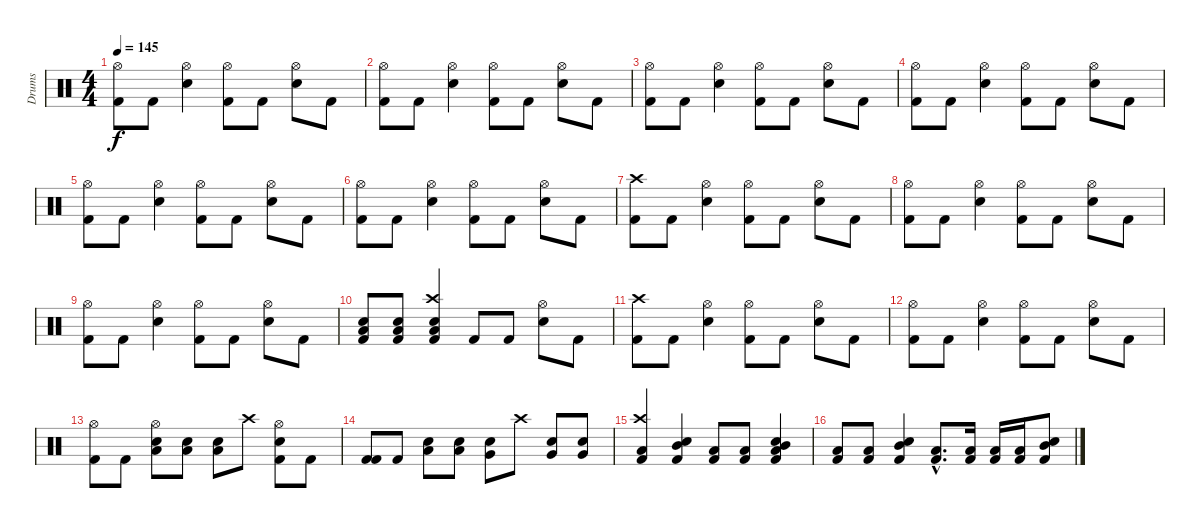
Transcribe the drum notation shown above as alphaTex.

\track ("Drums" "Drums") {instrument percussion}
\staff {score}
\articulation defaults
\ts (4 4)
\tempo 145
\clef neutral
\ks c
("Hi-Hat (open)" "Kick (hit) 2").8{dy f} "Kick (hit) 2".8 ("Hi-Hat (open)" "Electric Snare (hit)").4 ("Hi-Hat (open)" "Kick (hit) 2").8 "Kick (hit) 2".8 ("Hi-Hat (open)" "Electric Snare (hit)").8 "Kick (hit) 2".8 |
("Hi-Hat (open)" "Kick (hit) 2").8 "Kick (hit) 2".8 ("Hi-Hat (open)" "Electric Snare (hit)").4 ("Hi-Hat (open)" "Kick (hit) 2").8 "Kick (hit) 2".8 ("Hi-Hat (open)" "Electric Snare (hit)").8 "Kick (hit) 2".8 |
("Hi-Hat (open)" "Kick (hit) 2").8 "Kick (hit) 2".8 ("Hi-Hat (open)" "Electric Snare (hit)").4 ("Hi-Hat (open)" "Kick (hit) 2").8 "Kick (hit) 2".8 ("Hi-Hat (open)" "Electric Snare (hit)").8 "Kick (hit) 2".8 |
("Hi-Hat (open)" "Kick (hit) 2").8 "Kick (hit) 2".8 ("Hi-Hat (open)" "Electric Snare (hit)").4 ("Hi-Hat (open)" "Kick (hit) 2").8 "Kick (hit) 2".8 ("Hi-Hat (open)" "Electric Snare (hit)").8 "Kick (hit) 2".8 |
("Hi-Hat (open)" "Kick (hit) 2").8 "Kick (hit) 2".8 ("Hi-Hat (open)" "Electric Snare (hit)").4 ("Hi-Hat (open)" "Kick (hit) 2").8 "Kick (hit) 2".8 ("Hi-Hat (open)" "Electric Snare (hit)").8 "Kick (hit) 2".8 |
("Hi-Hat (open)" "Kick (hit) 2").8 "Kick (hit) 2".8 ("Hi-Hat (open)" "Electric Snare (hit)").4 ("Hi-Hat (open)" "Kick (hit) 2").8 "Kick (hit) 2".8 ("Hi-Hat (open)" "Electric Snare (hit)").8 "Kick (hit) 2".8 |
("Crash high (hit)" "Kick (hit) 2").8 "Kick (hit) 2".8 ("Hi-Hat (open)" "Electric Snare (hit)").4 ("Hi-Hat (open)" "Kick (hit) 2").8 "Kick (hit) 2".8 ("Hi-Hat (open)" "Electric Snare (hit)").8 "Kick (hit) 2".8 |
("Hi-Hat (open)" "Kick (hit) 2").8 "Kick (hit) 2".8 ("Hi-Hat (open)" "Electric Snare (hit)").4 ("Hi-Hat (open)" "Kick (hit) 2").8 "Kick (hit) 2".8 ("Hi-Hat (open)" "Electric Snare (hit)").8 "Kick (hit) 2".8 |
("Hi-Hat (open)" "Kick (hit) 2").8 "Kick (hit) 2".8 ("Hi-Hat (open)" "Electric Snare (hit)").4 ("Hi-Hat (open)" "Kick (hit) 2").8 "Kick (hit) 2".8 ("Hi-Hat (open)" "Electric Snare (hit)").8 "Kick (hit) 2".8 |
("Low Tom (hit)" "Electric Snare (hit)" "Kick (hit) 2").8 ("Low Tom (hit)" "Electric Snare (hit)" "Kick (hit) 2").8 ("Crash high (hit)" "Low Tom (hit)" "Electric Snare (hit)" "Kick (hit) 2").4 "Kick (hit) 2".8 "Kick (hit) 2".8 ("Hi-Hat (open)" "Electric Snare (hit)").8 "Kick (hit) 2".8 |
("Crash high (hit)" "Kick (hit) 2").8 "Kick (hit) 2".8 ("Hi-Hat (open)" "Electric Snare (hit)").4 ("Hi-Hat (open)" "Kick (hit) 2").8 "Kick (hit) 2".8 ("Hi-Hat (open)" "Electric Snare (hit)").8 "Kick (hit) 2".8 |
("Hi-Hat (open)" "Kick (hit) 2").8 "Kick (hit) 2".8 ("Hi-Hat (open)" "Electric Snare (hit)").4 ("Hi-Hat (open)" "Kick (hit) 2").8 "Kick (hit) 2".8 ("Hi-Hat (open)" "Electric Snare (hit)").8 "Kick (hit) 2".8 |
("Hi-Hat (open)" "Kick (hit) 2").8 "Kick (hit) 2".8 ("Hi-Hat (open)" "Electric Snare (hit)" "Low Tom (hit)").8 ("Electric Snare (hit)" "Low Tom (hit)").8 ("Electric Snare (hit)" "Low Tom (hit)").8 "Crash high (hit)".8 ("Hi-Hat (open)" "Electric Snare (hit)" "Kick (hit) 2").8 "Kick (hit) 2".8 |
("Kick (hit) 2" "Kick (hit) 2").8 "Kick (hit) 2".8 ("Electric Snare (hit)" "Low Tom (hit)").8 ("Electric Snare (hit)" "Low Tom (hit)").8 ("Electric Snare (hit)" "Very Low Tom (hit)").8 "Crash high (hit)".8 ("Electric Snare (hit)" "Very Low Tom (hit)").8 ("Electric Snare (hit)" "Very Low Tom (hit)").8 |
("Crash high (hit)" "Low Tom (hit)" "Kick (hit) 2").4 ("Electric Snare (hit)" "Mid Tom (hit)" "Kick (hit) 2").4 ("Low Tom (hit)" "Kick (hit) 2").8 ("Low Tom (hit)" "Kick (hit) 2").8 ("Electric Snare (hit)" "Mid Tom (hit)" "Low Tom (hit)" "Kick (hit) 2").4 |
("Low Tom (hit)" "Kick (hit) 2").8 ("Low Tom (hit)" "Kick (hit) 2").8 ("Mid Tom (hit)" "Electric Snare (hit)" "Kick (hit) 2").4 ("Low Tom (hit)"{hac} "Kick (hit) 2"{hac}).8{d} ("Low Tom (hit)" "Kick (hit) 2").16 ("Low Tom (hit)" "Kick (hit) 2").16 ("Low Tom (hit)" "Kick (hit) 2").16 ("Mid Tom (hit)" "Electric Snare (hit)" "Kick (hit) 2").8
